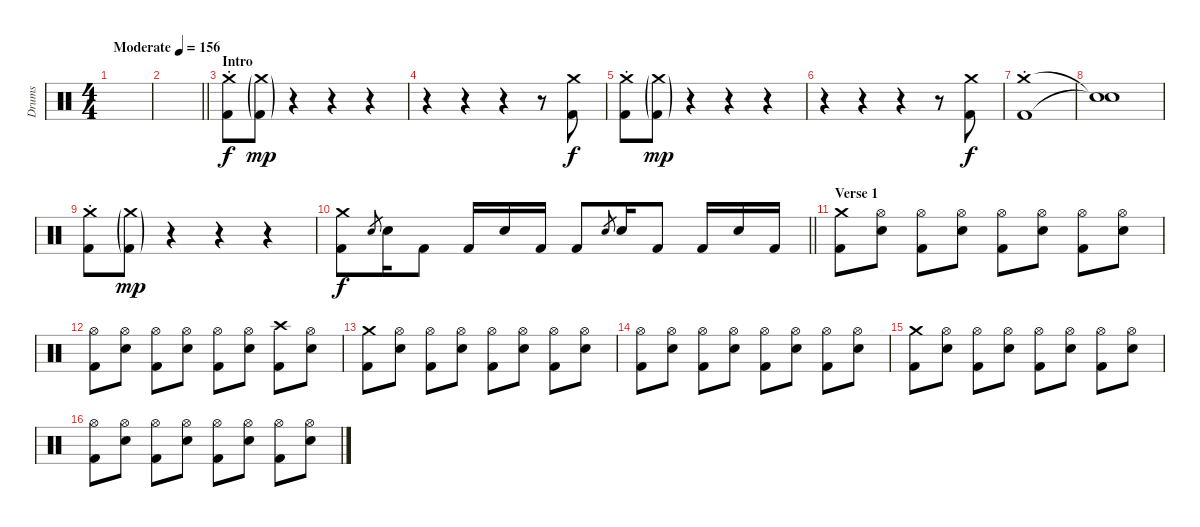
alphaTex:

\track ("Drums" "Drums") {instrument percussion}
\staff {score}
\articulation defaults
\ts (4 4)
\tempo (156 "Moderate")
\clef neutral
\ks c
|
\barLineRight lightlight
|
\section ("" "Intro")
("Crash medium (hit)"{st} "Kick (hit) 2"{st}).8 ("Crash medium (hit)"{g} "Kick (hit) 2"{g}).8{dy mp} r.4 r.4 r.4 |
r.4 r.4 r.4 r.8 ("Crash medium (hit)" "Kick (hit) 2").8{dy f} |
("Crash medium (hit)"{st} "Kick (hit) 2"{st}).8 ("Crash medium (hit)"{g} "Kick (hit) 2"{g}).8{dy mp} r.4 r.4 r.4 |
r.4 r.4 r.4 r.8 ("Crash medium (hit)" "Kick (hit) 2").8{dy f} |
("Crash medium (hit)"{st} "Kick (hit) 2"{st}).1 |
("Snare (hit)"{t} "Snare (hit)"{t}).1 |
("Crash medium (hit)"{st} "Kick (hit) 2"{st}).8 ("Crash medium (hit)"{g} "Kick (hit) 2"{g}).8{dy mp} r.4 r.4 r.4 |
\barLineRight lightlight
("Crash medium (hit)" "Kick (hit) 2").8{dy f} "Electric Snare (hit)".8{gr} "Electric Snare (hit)".16 "Kick (hit) 2".8 "Kick (hit) 2".16 "Electric Snare (hit)".16 "Kick (hit) 2".16 "Kick (hit) 2".8 "Electric Snare (hit)".8{gr} "Electric Snare (hit)".16 "Kick (hit) 2".8 "Kick (hit) 2".16 "Electric Snare (hit)".16 "Kick (hit) 2".16 |
\section ("" "Verse 1")
("Crash medium (hit)" "Kick (hit) 2").8 ("Hi-Hat (open)" "Electric Snare (hit)").8 ("Hi-Hat (open)" "Kick (hit) 2").8 ("Hi-Hat (open)" "Electric Snare (hit)").8 ("Hi-Hat (open)" "Kick (hit) 2").8 ("Hi-Hat (open)" "Electric Snare (hit)").8 ("Hi-Hat (open)" "Kick (hit) 2").8 ("Hi-Hat (open)" "Electric Snare (hit)").8 |
("Hi-Hat (open)" "Kick (hit) 2").8 ("Hi-Hat (open)" "Electric Snare (hit)").8 ("Hi-Hat (open)" "Kick (hit) 2").8 ("Hi-Hat (open)" "Electric Snare (hit)").8 ("Hi-Hat (open)" "Kick (hit) 2").8 ("Hi-Hat (open)" "Electric Snare (hit)").8 ("Crash high (hit)" "Kick (hit) 2").8 ("Hi-Hat (open)" "Electric Snare (hit)").8 |
("Crash medium (hit)" "Kick (hit) 2").8 ("Hi-Hat (open)" "Electric Snare (hit)").8 ("Hi-Hat (open)" "Kick (hit) 2").8 ("Hi-Hat (open)" "Electric Snare (hit)").8 ("Hi-Hat (open)" "Kick (hit) 2").8 ("Hi-Hat (open)" "Electric Snare (hit)").8 ("Hi-Hat (open)" "Kick (hit) 2").8 ("Hi-Hat (open)" "Electric Snare (hit)").8 |
("Hi-Hat (open)" "Kick (hit) 2").8 ("Hi-Hat (open)" "Electric Snare (hit)").8 ("Hi-Hat (open)" "Kick (hit) 2").8 ("Hi-Hat (open)" "Electric Snare (hit)").8 ("Hi-Hat (open)" "Kick (hit) 2").8 ("Hi-Hat (open)" "Electric Snare (hit)").8 ("Hi-Hat (open)" "Kick (hit) 2").8 ("Hi-Hat (open)" "Electric Snare (hit)").8 |
("Crash medium (hit)" "Kick (hit) 2").8 ("Hi-Hat (open)" "Electric Snare (hit)").8 ("Hi-Hat (open)" "Kick (hit) 2").8 ("Hi-Hat (open)" "Electric Snare (hit)").8 ("Hi-Hat (open)" "Kick (hit) 2").8 ("Hi-Hat (open)" "Electric Snare (hit)").8 ("Hi-Hat (open)" "Kick (hit) 2").8 ("Hi-Hat (open)" "Electric Snare (hit)").8 |
("Hi-Hat (open)" "Kick (hit) 2").8 ("Hi-Hat (open)" "Electric Snare (hit)").8 ("Hi-Hat (open)" "Kick (hit) 2").8 ("Hi-Hat (open)" "Electric Snare (hit)").8 ("Hi-Hat (open)" "Kick (hit) 2").8 ("Hi-Hat (open)" "Electric Snare (hit)").8 ("Hi-Hat (open)" "Kick (hit) 2").8 ("Hi-Hat (open)" "Electric Snare (hit)").8
